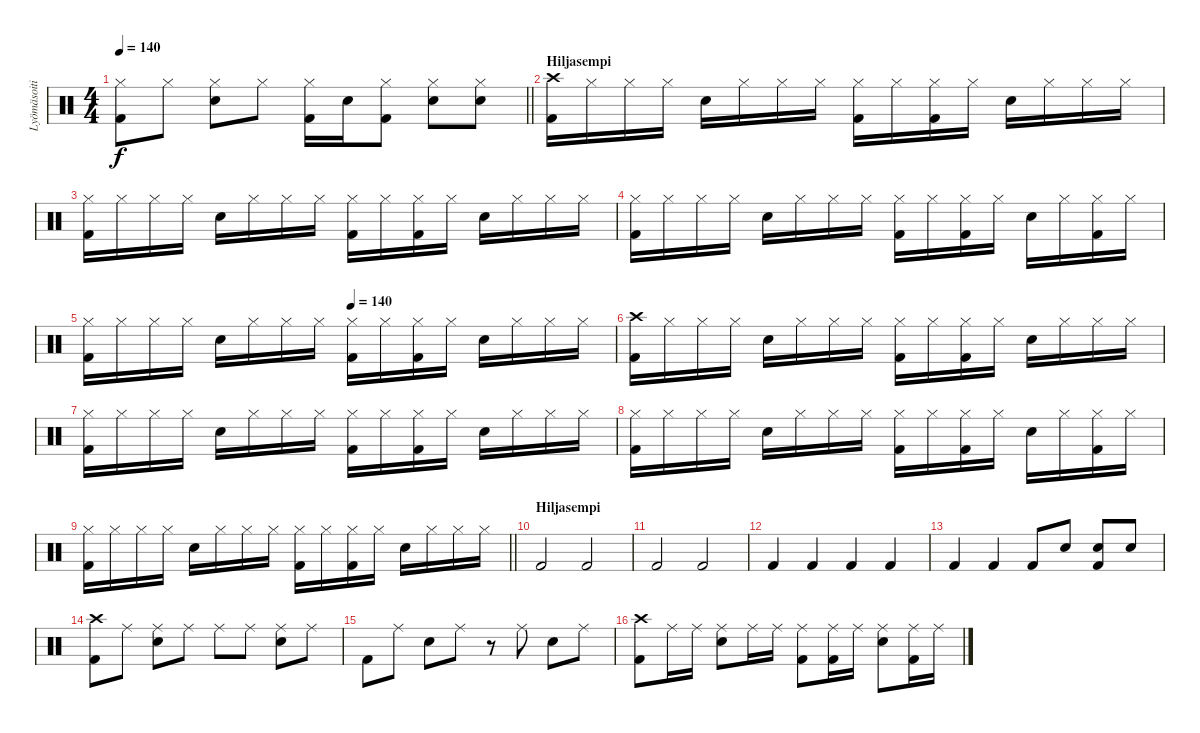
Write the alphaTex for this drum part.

\track ("Lyömäsoitin" "Lyömäsoiti") {instrument percussion}
\staff {score}
\articulation defaults
\ts (4 4)
\tempo 140
\clef neutral
\barLineRight lightlight
\ks c
("Hi-Hat (closed)" "Kick (hit) 2").8{dy f} "Hi-Hat (closed)".8 ("Hi-Hat (closed)" "Snare (hit) 2").8 "Hi-Hat (closed)".8 ("Hi-Hat (closed)" "Kick (hit) 2").16 "Snare (hit) 2".16 ("Hi-Hat (closed)" "Kick (hit) 2").8 ("Hi-Hat (closed)" "Snare (hit) 2").8 ("Hi-Hat (closed)" "Snare (hit) 2").8 |
\section ("" "Hiljasempi")
("Crash high (hit)" "Kick (hit) 2").16 "Hi-Hat (closed)".16 "Hi-Hat (closed)".16 "Hi-Hat (closed)".16 "Snare (hit) 2".16 "Hi-Hat (closed)".16 "Hi-Hat (closed)".16 "Hi-Hat (closed)".16 ("Hi-Hat (closed)" "Kick (hit) 2").16 "Hi-Hat (closed)".16 ("Hi-Hat (closed)" "Kick (hit) 2").16 "Hi-Hat (closed)".16 "Snare (hit) 2".16 "Hi-Hat (closed)".16 "Hi-Hat (closed)".16 "Hi-Hat (closed)".16 |
("Hi-Hat (closed)" "Kick (hit) 2").16 "Hi-Hat (closed)".16 "Hi-Hat (closed)".16 "Hi-Hat (closed)".16 "Snare (hit) 2".16 "Hi-Hat (closed)".16 "Hi-Hat (closed)".16 "Hi-Hat (closed)".16 ("Hi-Hat (closed)" "Kick (hit) 2").16 "Hi-Hat (closed)".16 ("Hi-Hat (closed)" "Kick (hit) 2").16 "Hi-Hat (closed)".16 "Snare (hit) 2".16 "Hi-Hat (closed)".16 "Hi-Hat (closed)".16 "Hi-Hat (closed)".16 |
("Hi-Hat (closed)" "Kick (hit) 2").16 "Hi-Hat (closed)".16 "Hi-Hat (closed)".16 "Hi-Hat (closed)".16 "Snare (hit) 2".16 "Hi-Hat (closed)".16 "Hi-Hat (closed)".16 "Hi-Hat (closed)".16 ("Hi-Hat (closed)" "Kick (hit) 2").16 "Hi-Hat (closed)".16 ("Hi-Hat (closed)" "Kick (hit) 2").16 "Hi-Hat (closed)".16 "Snare (hit) 2".16 "Hi-Hat (closed)".16 ("Hi-Hat (closed)" "Kick (hit) 2").16 "Hi-Hat (closed)".16 |
\tempo (140 0.5)
("Hi-Hat (closed)" "Kick (hit) 2").16 "Hi-Hat (closed)".16 "Hi-Hat (closed)".16 "Hi-Hat (closed)".16 "Snare (hit) 2".16 "Hi-Hat (closed)".16 "Hi-Hat (closed)".16 "Hi-Hat (closed)".16 ("Hi-Hat (closed)" "Kick (hit) 2").16 "Hi-Hat (closed)".16 ("Hi-Hat (closed)" "Kick (hit) 2").16 "Hi-Hat (closed)".16 "Snare (hit) 2".16 "Hi-Hat (closed)".16 "Hi-Hat (closed)".16 "Hi-Hat (closed)".16 |
("Crash high (hit)" "Kick (hit) 2").16 "Hi-Hat (closed)".16 "Hi-Hat (closed)".16 "Hi-Hat (closed)".16 "Snare (hit) 2".16 "Hi-Hat (closed)".16 "Hi-Hat (closed)".16 "Hi-Hat (closed)".16 ("Hi-Hat (closed)" "Kick (hit) 2").16 "Hi-Hat (closed)".16 ("Hi-Hat (closed)" "Kick (hit) 2").16 "Hi-Hat (closed)".16 "Snare (hit) 2".16 "Hi-Hat (closed)".16 "Hi-Hat (closed)".16 "Hi-Hat (closed)".16 |
("Hi-Hat (closed)" "Kick (hit) 2").16 "Hi-Hat (closed)".16 "Hi-Hat (closed)".16 "Hi-Hat (closed)".16 "Snare (hit) 2".16 "Hi-Hat (closed)".16 "Hi-Hat (closed)".16 "Hi-Hat (closed)".16 ("Hi-Hat (closed)" "Kick (hit) 2").16 "Hi-Hat (closed)".16 ("Hi-Hat (closed)" "Kick (hit) 2").16 "Hi-Hat (closed)".16 "Snare (hit) 2".16 "Hi-Hat (closed)".16 "Hi-Hat (closed)".16 "Hi-Hat (closed)".16 |
("Hi-Hat (closed)" "Kick (hit) 2").16 "Hi-Hat (closed)".16 "Hi-Hat (closed)".16 "Hi-Hat (closed)".16 "Snare (hit) 2".16 "Hi-Hat (closed)".16 "Hi-Hat (closed)".16 "Hi-Hat (closed)".16 ("Hi-Hat (closed)" "Kick (hit) 2").16 "Hi-Hat (closed)".16 ("Hi-Hat (closed)" "Kick (hit) 2").16 "Hi-Hat (closed)".16 "Snare (hit) 2".16 "Hi-Hat (closed)".16 ("Hi-Hat (closed)" "Kick (hit) 2").16 "Hi-Hat (closed)".16 |
\barLineRight lightlight
("Hi-Hat (closed)" "Kick (hit) 2").16 "Hi-Hat (closed)".16 "Hi-Hat (closed)".16 "Hi-Hat (closed)".16 "Snare (hit) 2".16 "Hi-Hat (closed)".16 "Hi-Hat (closed)".16 "Hi-Hat (closed)".16 ("Hi-Hat (closed)" "Kick (hit) 2").16 "Hi-Hat (closed)".16 ("Hi-Hat (closed)" "Kick (hit) 2").16 "Hi-Hat (closed)".16 "Snare (hit) 2".16 "Hi-Hat (closed)".16 "Hi-Hat (closed)".16 "Hi-Hat (closed)".16 |
\section ("" "Hiljasempi ")
"Kick (hit) 2".2 "Kick (hit) 2".2 |
"Kick (hit) 2".2 "Kick (hit) 2".2 |
"Kick (hit) 2".4 "Kick (hit) 2".4 "Kick (hit) 2".4 "Kick (hit) 2".4 |
"Kick (hit) 2".4 "Kick (hit) 2".4 "Kick (hit) 2".8 "Snare (hit) 2".8 ("Snare (hit) 2" "Kick (hit) 2").8 "Snare (hit) 2".8 |
("Crash high (hit)" "Kick (hit) 2").8 "Ride (middle)".8 ("Ride (middle)" "Snare (hit) 2").8 "Ride (middle)".8 "Ride (middle)".8 "Ride (middle)".8 ("Ride (middle)" "Snare (hit) 2").8 "Ride (middle)".8 |
"Kick (hit) 2".8 "Ride (middle)".8 "Snare (hit) 2".8 "Ride (middle)".8 r.8 "Ride (middle)".8 "Snare (hit) 2".8 "Ride (middle)".8 |
("Crash high (hit)" "Kick (hit) 2").8 "Ride (middle)".16 "Ride (middle)".16 ("Ride (middle)" "Snare (hit) 2").8 "Ride (middle)".16 "Ride (middle)".16 ("Ride (middle)" "Kick (hit) 2").8 ("Ride (middle)" "Kick (hit) 2").16 "Ride (middle)".16 ("Ride (middle)" "Snare (hit) 2").8 ("Ride (middle)" "Kick (hit) 2").16 "Ride (middle)".16
